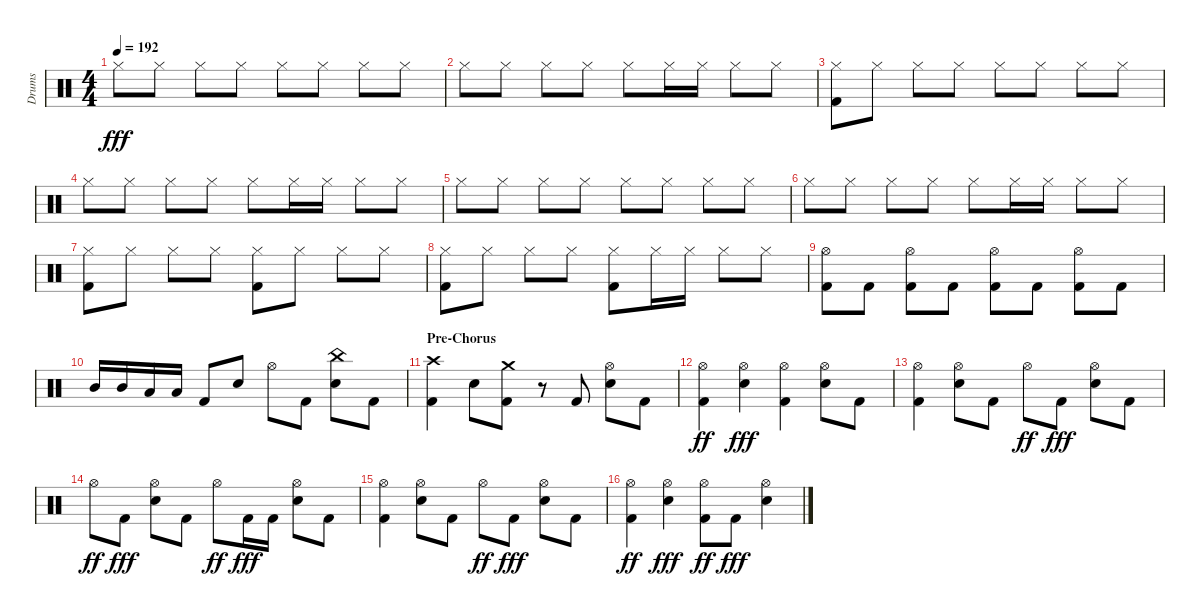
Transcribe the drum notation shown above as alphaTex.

\track ("Drums" "Drums") {instrument percussion}
\staff {score}
\articulation defaults
\ts (4 4)
\tempo 192
\clef neutral
\ks aminor "Hi-Hat (closed)".8{dy fff} "Hi-Hat (closed)".8 "Hi-Hat (closed)".8 "Hi-Hat (closed)".8 "Hi-Hat (closed)".8 "Hi-Hat (closed)".8 "Hi-Hat (closed)".8 "Hi-Hat (closed)".8
|
"Hi-Hat (closed)".8 "Hi-Hat (closed)".8 "Hi-Hat (closed)".8 "Hi-Hat (closed)".8 "Hi-Hat (closed)".8 "Hi-Hat (closed)".16 "Hi-Hat (closed)".16 "Hi-Hat (closed)".8 "Hi-Hat (closed)".8 |
("Hi-Hat (closed)" "Kick (hit) 2").8 "Hi-Hat (closed)".8 "Hi-Hat (closed)".8 "Hi-Hat (closed)".8 "Hi-Hat (closed)".8 "Hi-Hat (closed)".8 "Hi-Hat (closed)".8 "Hi-Hat (closed)".8 |
"Hi-Hat (closed)".8 "Hi-Hat (closed)".8 "Hi-Hat (closed)".8 "Hi-Hat (closed)".8 "Hi-Hat (closed)".8 "Hi-Hat (closed)".16 "Hi-Hat (closed)".16 "Hi-Hat (closed)".8 "Hi-Hat (closed)".8 |
"Hi-Hat (closed)".8 "Hi-Hat (closed)".8 "Hi-Hat (closed)".8 "Hi-Hat (closed)".8 "Hi-Hat (closed)".8 "Hi-Hat (closed)".8 "Hi-Hat (closed)".8 "Hi-Hat (closed)".8 |
"Hi-Hat (closed)".8 "Hi-Hat (closed)".8 "Hi-Hat (closed)".8 "Hi-Hat (closed)".8 "Hi-Hat (closed)".8 "Hi-Hat (closed)".16 "Hi-Hat (closed)".16 "Hi-Hat (closed)".8 "Hi-Hat (closed)".8 |
("Hi-Hat (closed)" "Kick (hit) 2").8 "Hi-Hat (closed)".8 "Hi-Hat (closed)".8 "Hi-Hat (closed)".8 ("Kick (hit) 2" "Hi-Hat (closed)").8 "Hi-Hat (closed)".8 "Hi-Hat (closed)".8 "Hi-Hat (closed)".8 |
("Hi-Hat (closed)" "Kick (hit) 2").8 "Hi-Hat (closed)".8 "Hi-Hat (closed)".8 "Hi-Hat (closed)".8 ("Hi-Hat (closed)" "Kick (hit) 2").8 "Hi-Hat (closed)".16 "Hi-Hat (closed)".16 "Hi-Hat (closed)".8 "Hi-Hat (closed)".8 |
("Kick (hit) 2" "Hi-Hat (open)").8 "Kick (hit) 2".8 ("Kick (hit) 2" "Hi-Hat (open)").8 "Kick (hit) 2".8 ("Kick (hit) 2" "Hi-Hat (open)").8 "Kick (hit) 2".8 ("Hi-Hat (open)" "Kick (hit) 2").8 "Kick (hit) 2".8 |
"Mid Tom (hit)".16 "Mid Tom (hit)".16 "Low Tom (hit)".16 "Low Tom (hit)".16 "Kick (hit) 2".8 "Snare (hit) 2".8 "Hi-Hat (open)".8 "Kick (hit) 2".8 ("Snare (hit) 2" "China (hit)").8 "Kick (hit) 2".8 |
\section ("" "Pre-Chorus")
("Crash high (hit)" "Kick (hit) 2").4 "Snare (hit) 2".8 ("Kick (hit) 2" "Crash medium (hit)").8 r.8 "Kick (hit) 2".8 ("Snare (hit) 2" "Hi-Hat (open)").8 "Kick (hit) 2".8 |
("Kick (hit) 2" "Hi-Hat (open)").4{dy ff} ("Snare (hit) 2" "Hi-Hat (open)").4{dy fff} ("Hi-Hat (open)" "Kick (hit) 2").4 ("Hi-Hat (open)" "Snare (hit) 2").8 "Kick (hit) 2".8 |
("Hi-Hat (open)" "Kick (hit) 2").4 ("Snare (hit) 2" "Hi-Hat (open)").8 "Kick (hit) 2".8 "Hi-Hat (open)".8{dy ff} "Kick (hit) 2".8{dy fff} ("Hi-Hat (open)" "Snare (hit) 2").8 "Kick (hit) 2".8 |
"Hi-Hat (open)".8{dy ff} "Kick (hit) 2".8{dy fff} ("Hi-Hat (open)" "Snare (hit) 2").8 "Kick (hit) 2".8 "Hi-Hat (open)".8{dy ff} "Kick (hit) 2".16{dy fff} "Kick (hit) 2".16 ("Hi-Hat (open)" "Snare (hit) 2").8 "Kick (hit) 2".8 |
("Kick (hit) 2" "Hi-Hat (open)").4 ("Hi-Hat (open)" "Snare (hit) 2").8 "Kick (hit) 2".8 "Hi-Hat (open)".8{dy ff} "Kick (hit) 2".8{dy fff} ("Snare (hit) 2" "Hi-Hat (open)").8 "Kick (hit) 2".8 |
("Kick (hit) 2" "Hi-Hat (open)").4{dy ff} ("Snare (hit) 2" "Hi-Hat (open)").4{dy fff} ("Hi-Hat (open)" "Kick (hit) 2").8{dy ff} "Kick (hit) 2".8{dy fff} ("Snare (hit) 2" "Hi-Hat (open)").4
